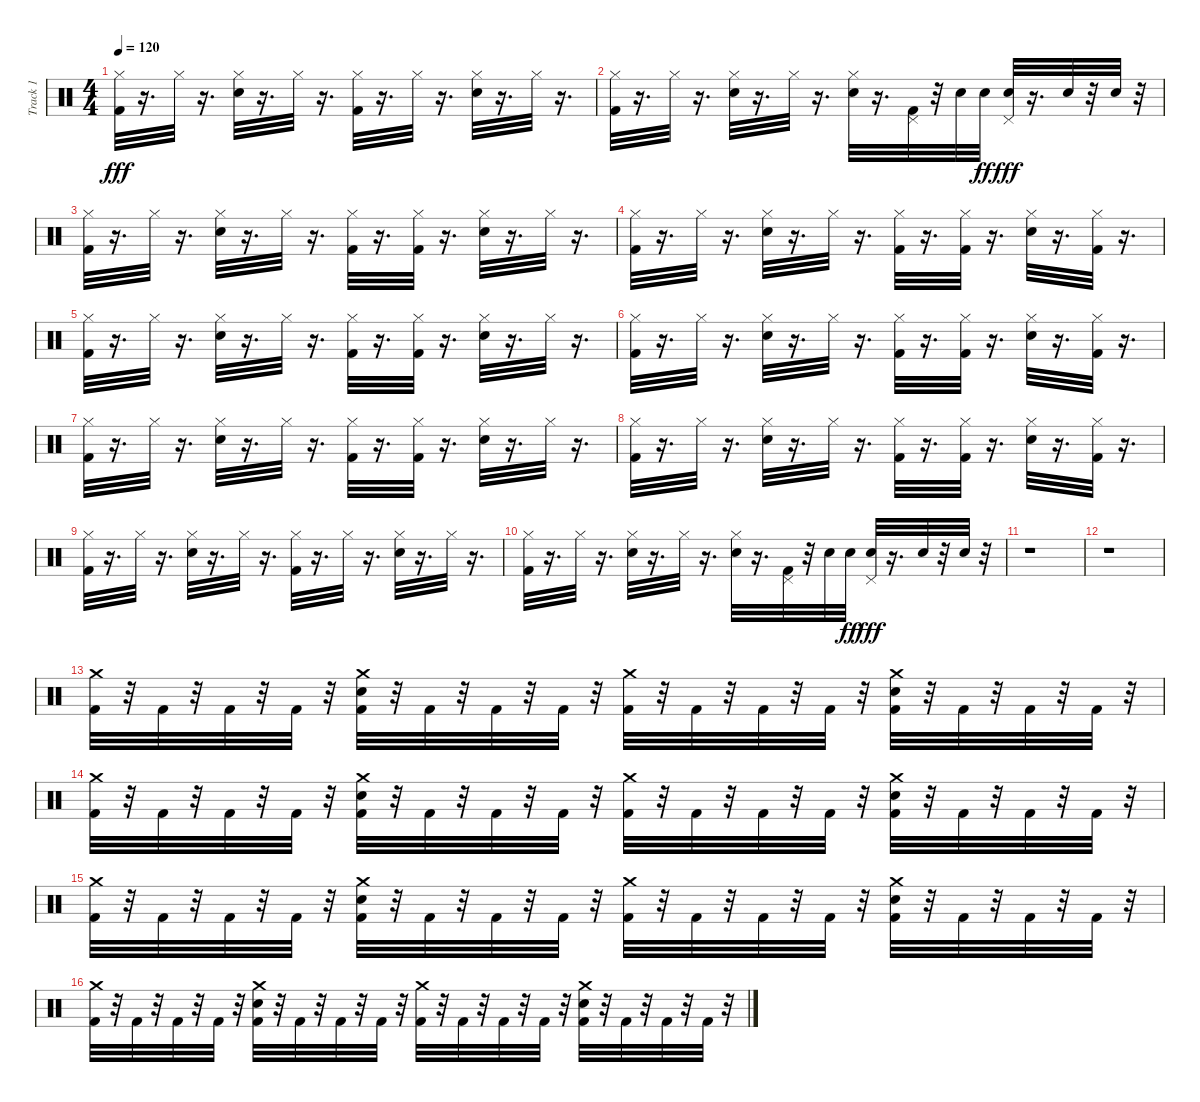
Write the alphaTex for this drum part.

\track ("Track 1" "Track 1") {instrument percussion}
\staff {score}
\articulation defaults
\ts (4 4)
\tempo 120
\clef neutral
\ks c
("Kick (hit) 2" "Hi-Hat (closed)").32{dy fff} r.16{d} "Hi-Hat (closed)".32 r.16{d} ("Hi-Hat (closed)" "Snare (hit) 2").32 r.16{d} "Hi-Hat (closed)".32 r.16{d} ("Kick (hit) 2" "Hi-Hat (closed)").32 r.16{d} "Hi-Hat (closed)".32 r.16{d} ("Snare (hit) 2" "Hi-Hat (closed)").32 r.16{d} "Hi-Hat (closed)".32 r.16{d} |
("Hi-Hat (closed)" "Kick (hit) 2").32 r.16{d} "Hi-Hat (closed)".32 r.16{d} ("Hi-Hat (closed)" "Snare (hit) 2").32 r.16{d} "Hi-Hat (closed)".32 r.16{d} ("Snare (hit) 2" "Hi-Hat (closed)").32 r.16{d} ("Kick (hit) 2" "Pedal Hi-Hat (hit)").32 r.32 "Snare (hit) 2".32 "Snare (hit) 2".32{dy ff} ("Pedal Hi-Hat (hit)" "Snare (hit) 2").32{dy fff} r.16{d} "Snare (hit) 2".32 r.32 "Snare (hit) 2".32 r.32 |
("Kick (hit) 2" "Hi-Hat (closed)").32 r.16{d} "Hi-Hat (closed)".32 r.16{d} ("Hi-Hat (closed)" "Snare (hit) 2").32 r.16{d} "Hi-Hat (closed)".32 r.16{d} ("Kick (hit) 2" "Hi-Hat (closed)").32 r.16{d} ("Hi-Hat (closed)" "Kick (hit) 2").32 r.16{d} ("Hi-Hat (closed)" "Snare (hit) 2").32 r.16{d} "Hi-Hat (closed)".32 r.16{d} |
("Hi-Hat (closed)" "Kick (hit) 2").32 r.16{d} "Hi-Hat (closed)".32 r.16{d} ("Hi-Hat (closed)" "Snare (hit) 2").32 r.16{d} "Hi-Hat (closed)".32 r.16{d} ("Kick (hit) 2" "Hi-Hat (closed)").32 r.16{d} ("Hi-Hat (closed)" "Kick (hit) 2").32 r.16{d} ("Hi-Hat (closed)" "Snare (hit) 2").32 r.16{d} ("Hi-Hat (closed)" "Kick (hit) 2").32 r.16{d} |
("Kick (hit) 2" "Hi-Hat (closed)").32 r.16{d} "Hi-Hat (closed)".32 r.16{d} ("Hi-Hat (closed)" "Snare (hit) 2").32 r.16{d} "Hi-Hat (closed)".32 r.16{d} ("Kick (hit) 2" "Hi-Hat (closed)").32 r.16{d} ("Hi-Hat (closed)" "Kick (hit) 2").32 r.16{d} ("Hi-Hat (closed)" "Snare (hit) 2").32 r.16{d} "Hi-Hat (closed)".32 r.16{d} |
("Hi-Hat (closed)" "Kick (hit) 2").32 r.16{d} "Hi-Hat (closed)".32 r.16{d} ("Hi-Hat (closed)" "Snare (hit) 2").32 r.16{d} "Hi-Hat (closed)".32 r.16{d} ("Kick (hit) 2" "Hi-Hat (closed)").32 r.16{d} ("Hi-Hat (closed)" "Kick (hit) 2").32 r.16{d} ("Hi-Hat (closed)" "Snare (hit) 2").32 r.16{d} ("Hi-Hat (closed)" "Kick (hit) 2").32 r.16{d} |
("Kick (hit) 2" "Hi-Hat (closed)").32 r.16{d} "Hi-Hat (closed)".32 r.16{d} ("Hi-Hat (closed)" "Snare (hit) 2").32 r.16{d} "Hi-Hat (closed)".32 r.16{d} ("Kick (hit) 2" "Hi-Hat (closed)").32 r.16{d} ("Hi-Hat (closed)" "Kick (hit) 2").32 r.16{d} ("Hi-Hat (closed)" "Snare (hit) 2").32 r.16{d} "Hi-Hat (closed)".32 r.16{d} |
("Hi-Hat (closed)" "Kick (hit) 2").32 r.16{d} "Hi-Hat (closed)".32 r.16{d} ("Hi-Hat (closed)" "Snare (hit) 2").32 r.16{d} "Hi-Hat (closed)".32 r.16{d} ("Kick (hit) 2" "Hi-Hat (closed)").32 r.16{d} ("Hi-Hat (closed)" "Kick (hit) 2").32 r.16{d} ("Hi-Hat (closed)" "Snare (hit) 2").32 r.16{d} ("Hi-Hat (closed)" "Kick (hit) 2").32 r.16{d} |
("Kick (hit) 2" "Hi-Hat (closed)").32 r.16{d} "Hi-Hat (closed)".32 r.16{d} ("Hi-Hat (closed)" "Snare (hit) 2").32 r.16{d} "Hi-Hat (closed)".32 r.16{d} ("Kick (hit) 2" "Hi-Hat (closed)").32 r.16{d} "Hi-Hat (closed)".32 r.16{d} ("Snare (hit) 2" "Hi-Hat (closed)").32 r.16{d} "Hi-Hat (closed)".32 r.16{d} |
("Hi-Hat (closed)" "Kick (hit) 2").32 r.16{d} "Hi-Hat (closed)".32 r.16{d} ("Hi-Hat (closed)" "Snare (hit) 2").32 r.16{d} "Hi-Hat (closed)".32 r.16{d} ("Snare (hit) 2" "Hi-Hat (closed)").32 r.16{d} ("Kick (hit) 2" "Pedal Hi-Hat (hit)").32 r.32 "Snare (hit) 2".32 "Snare (hit) 2".32{dy ff} ("Pedal Hi-Hat (hit)" "Snare (hit) 2").32{dy fff} r.16{d} "Snare (hit) 2".32 r.32 "Snare (hit) 2".32 r.32 |
r.1 |
r.1 |
("Kick (hit) 2" "Crash medium (hit)").32 r.32 "Kick (hit) 2".32 r.32 "Kick (hit) 2".32 r.32 "Kick (hit) 2".32 r.32 ("Crash medium (hit)" "Kick (hit) 2" "Snare (hit) 2").32 r.32 "Kick (hit) 2".32 r.32 "Kick (hit) 2".32 r.32 "Kick (hit) 2".32 r.32 ("Kick (hit) 2" "Crash medium (hit)").32 r.32 "Kick (hit) 2".32 r.32 "Kick (hit) 2".32 r.32 "Kick (hit) 2".32 r.32 ("Crash medium (hit)" "Kick (hit) 2" "Snare (hit) 2").32 r.32 "Kick (hit) 2".32 r.32 "Kick (hit) 2".32 r.32 "Kick (hit) 2".32 r.32 |
("Kick (hit) 2" "Crash medium (hit)").32 r.32 "Kick (hit) 2".32 r.32 "Kick (hit) 2".32 r.32 "Kick (hit) 2".32 r.32 ("Crash medium (hit)" "Kick (hit) 2" "Snare (hit) 2").32 r.32 "Kick (hit) 2".32 r.32 "Kick (hit) 2".32 r.32 "Kick (hit) 2".32 r.32 ("Kick (hit) 2" "Crash medium (hit)").32 r.32 "Kick (hit) 2".32 r.32 "Kick (hit) 2".32 r.32 "Kick (hit) 2".32 r.32 ("Snare (hit) 2" "Crash medium (hit)" "Kick (hit) 2").32 r.32 "Kick (hit) 2".32 r.32 "Kick (hit) 2".32 r.32 "Kick (hit) 2".32 r.32 |
("Kick (hit) 2" "Crash medium (hit)").32 r.32 "Kick (hit) 2".32 r.32 "Kick (hit) 2".32 r.32 "Kick (hit) 2".32 r.32 ("Crash medium (hit)" "Snare (hit) 2" "Kick (hit) 2").32 r.32 "Kick (hit) 2".32 r.32 "Kick (hit) 2".32 r.32 "Kick (hit) 2".32 r.32 ("Kick (hit) 2" "Crash medium (hit)").32 r.32 "Kick (hit) 2".32 r.32 "Kick (hit) 2".32 r.32 "Kick (hit) 2".32 r.32 ("Snare (hit) 2" "Crash medium (hit)" "Kick (hit) 2").32 r.32 "Kick (hit) 2".32 r.32 "Kick (hit) 2".32 r.32 "Kick (hit) 2".32 r.32 |
("Kick (hit) 2" "Crash medium (hit)").32 r.32 "Kick (hit) 2".32 r.32 "Kick (hit) 2".32 r.32 "Kick (hit) 2".32 r.32 ("Crash medium (hit)" "Kick (hit) 2" "Snare (hit) 2").32 r.32 "Kick (hit) 2".32 r.32 "Kick (hit) 2".32 r.32 "Kick (hit) 2".32 r.32 ("Kick (hit) 2" "Crash medium (hit)").32 r.32 "Kick (hit) 2".32 r.32 "Kick (hit) 2".32 r.32 "Kick (hit) 2".32 r.32 ("Crash medium (hit)" "Snare (hit) 2" "Kick (hit) 2").32 r.32 "Kick (hit) 2".32 r.32 "Kick (hit) 2".32 r.32 "Kick (hit) 2".32 r.32
